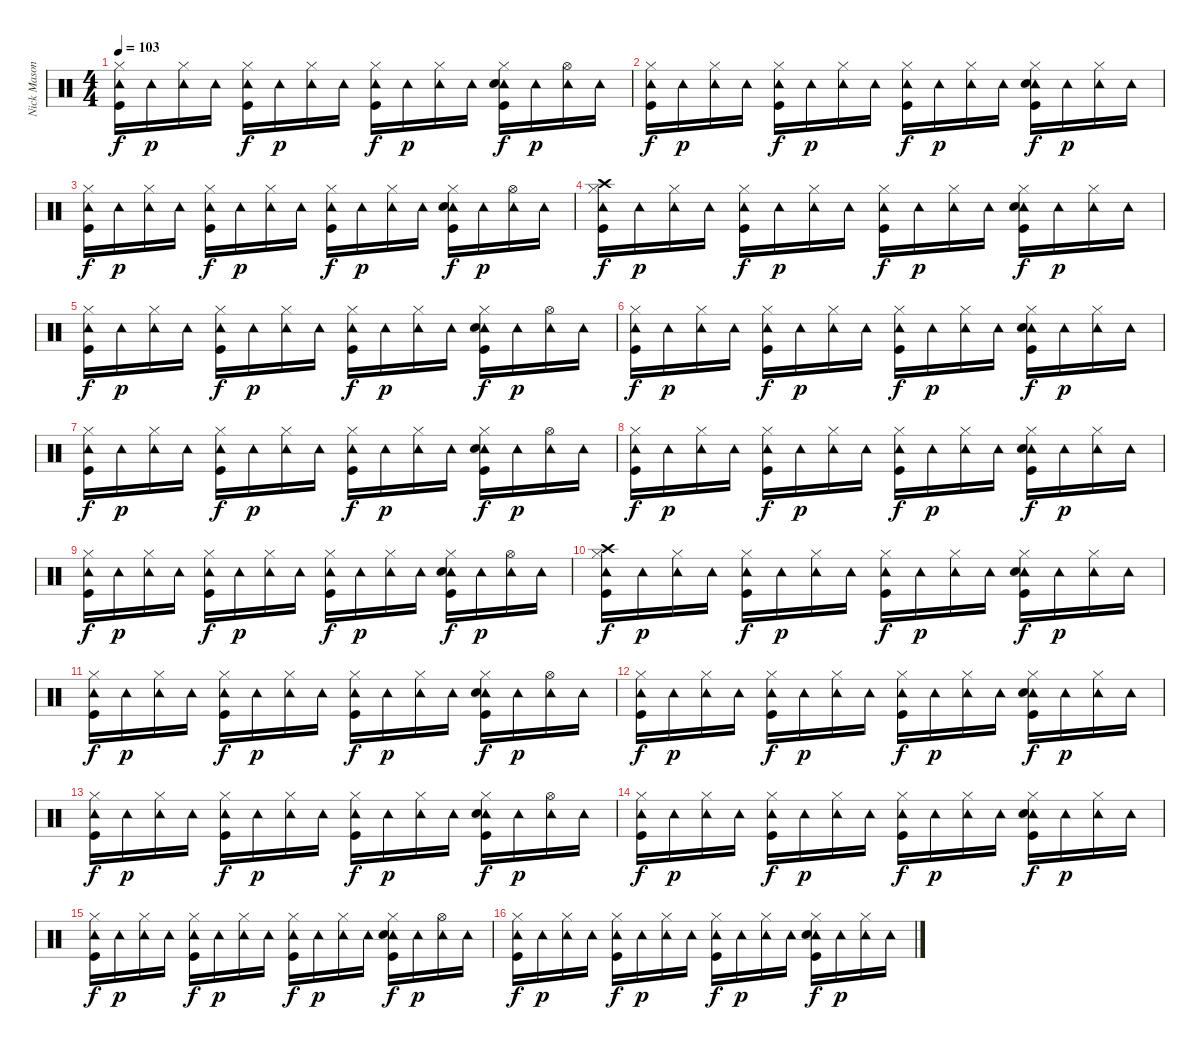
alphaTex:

\track ("Nick Mason" "Nick Mason") {instrument percussion}
\staff {score}
\articulation defaults
\ts (4 4)
\tempo 103
\clef neutral
\ks c
("Tambourine (hit)" "Kick (hit)" "Hi-Hat (closed)").16{dy f} "Tambourine (hit)".16{dy p} ("Tambourine (hit)" "Hi-Hat (closed)").16 "Tambourine (hit)".16 ("Tambourine (hit)" "Kick (hit)" "Hi-Hat (closed)").16{dy f} "Tambourine (hit)".16{dy p} ("Tambourine (hit)" "Hi-Hat (closed)").16 "Tambourine (hit)".16 ("Tambourine (hit)" "Kick (hit)" "Hi-Hat (closed)").16{dy f} "Tambourine (hit)".16{dy p} ("Tambourine (hit)" "Hi-Hat (closed)").16 "Tambourine (hit)".16 ("Tambourine (hit)" "Kick (hit)" "Snare (hit) 2" "Hi-Hat (closed)").16{dy f} "Tambourine (hit)".16{dy p} ("Tambourine (hit)" "Hi-Hat (open)").16 "Tambourine (hit)".16 |
("Tambourine (hit)" "Kick (hit)" "Hi-Hat (closed)").16{dy f} "Tambourine (hit)".16{dy p} ("Tambourine (hit)" "Hi-Hat (closed)").16 "Tambourine (hit)".16 ("Tambourine (hit)" "Kick (hit)" "Hi-Hat (closed)").16{dy f} "Tambourine (hit)".16{dy p} ("Tambourine (hit)" "Hi-Hat (closed)").16 "Tambourine (hit)".16 ("Tambourine (hit)" "Kick (hit)" "Hi-Hat (closed)").16{dy f} "Tambourine (hit)".16{dy p} ("Tambourine (hit)" "Hi-Hat (closed)").16 "Tambourine (hit)".16 ("Tambourine (hit)" "Kick (hit)" "Snare (hit) 2" "Hi-Hat (closed)").16{dy f} "Tambourine (hit)".16{dy p} ("Tambourine (hit)" "Hi-Hat (closed)").16 "Tambourine (hit)".16 |
("Tambourine (hit)" "Kick (hit)" "Hi-Hat (closed)").16{dy f} "Tambourine (hit)".16{dy p} ("Tambourine (hit)" "Hi-Hat (closed)").16 "Tambourine (hit)".16 ("Tambourine (hit)" "Kick (hit)" "Hi-Hat (closed)").16{dy f} "Tambourine (hit)".16{dy p} ("Tambourine (hit)" "Hi-Hat (closed)").16 "Tambourine (hit)".16 ("Tambourine (hit)" "Kick (hit)" "Hi-Hat (closed)").16{dy f} "Tambourine (hit)".16{dy p} ("Tambourine (hit)" "Hi-Hat (closed)").16 "Tambourine (hit)".16 ("Tambourine (hit)" "Kick (hit)" "Snare (hit) 2" "Hi-Hat (closed)").16{dy f} "Tambourine (hit)".16{dy p} ("Tambourine (hit)" "Hi-Hat (open)").16 "Tambourine (hit)".16 |
("Tambourine (hit)" "Kick (hit)" "Hi-Hat (closed)" "Crash high (hit)").16{dy f} "Tambourine (hit)".16{dy p} ("Tambourine (hit)" "Hi-Hat (closed)").16 "Tambourine (hit)".16 ("Tambourine (hit)" "Kick (hit)" "Hi-Hat (closed)").16{dy f} "Tambourine (hit)".16{dy p} ("Tambourine (hit)" "Hi-Hat (closed)").16 "Tambourine (hit)".16 ("Tambourine (hit)" "Kick (hit)" "Hi-Hat (closed)").16{dy f} "Tambourine (hit)".16{dy p} ("Tambourine (hit)" "Hi-Hat (closed)").16 "Tambourine (hit)".16 ("Tambourine (hit)" "Kick (hit)" "Snare (hit) 2" "Hi-Hat (closed)").16{dy f} "Tambourine (hit)".16{dy p} ("Tambourine (hit)" "Hi-Hat (closed)").16 "Tambourine (hit)".16 |
("Tambourine (hit)" "Kick (hit)" "Hi-Hat (closed)").16{dy f} "Tambourine (hit)".16{dy p} ("Tambourine (hit)" "Hi-Hat (closed)").16 "Tambourine (hit)".16 ("Tambourine (hit)" "Kick (hit)" "Hi-Hat (closed)").16{dy f} "Tambourine (hit)".16{dy p} ("Tambourine (hit)" "Hi-Hat (closed)").16 "Tambourine (hit)".16 ("Tambourine (hit)" "Kick (hit)" "Hi-Hat (closed)").16{dy f} "Tambourine (hit)".16{dy p} ("Tambourine (hit)" "Hi-Hat (closed)").16 "Tambourine (hit)".16 ("Tambourine (hit)" "Kick (hit)" "Snare (hit) 2" "Hi-Hat (closed)").16{dy f} "Tambourine (hit)".16{dy p} ("Tambourine (hit)" "Hi-Hat (open)").16 "Tambourine (hit)".16 |
("Tambourine (hit)" "Kick (hit)" "Hi-Hat (closed)").16{dy f} "Tambourine (hit)".16{dy p} ("Tambourine (hit)" "Hi-Hat (closed)").16 "Tambourine (hit)".16 ("Tambourine (hit)" "Kick (hit)" "Hi-Hat (closed)").16{dy f} "Tambourine (hit)".16{dy p} ("Tambourine (hit)" "Hi-Hat (closed)").16 "Tambourine (hit)".16 ("Tambourine (hit)" "Kick (hit)" "Hi-Hat (closed)").16{dy f} "Tambourine (hit)".16{dy p} ("Tambourine (hit)" "Hi-Hat (closed)").16 "Tambourine (hit)".16 ("Tambourine (hit)" "Kick (hit)" "Snare (hit) 2" "Hi-Hat (closed)").16{dy f} "Tambourine (hit)".16{dy p} ("Tambourine (hit)" "Hi-Hat (closed)").16 "Tambourine (hit)".16 |
("Tambourine (hit)" "Kick (hit)" "Hi-Hat (closed)").16{dy f} "Tambourine (hit)".16{dy p} ("Tambourine (hit)" "Hi-Hat (closed)").16 "Tambourine (hit)".16 ("Tambourine (hit)" "Kick (hit)" "Hi-Hat (closed)").16{dy f} "Tambourine (hit)".16{dy p} ("Tambourine (hit)" "Hi-Hat (closed)").16 "Tambourine (hit)".16 ("Tambourine (hit)" "Kick (hit)" "Hi-Hat (closed)").16{dy f} "Tambourine (hit)".16{dy p} ("Tambourine (hit)" "Hi-Hat (closed)").16 "Tambourine (hit)".16 ("Tambourine (hit)" "Kick (hit)" "Snare (hit) 2" "Hi-Hat (closed)").16{dy f} "Tambourine (hit)".16{dy p} ("Tambourine (hit)" "Hi-Hat (open)").16 "Tambourine (hit)".16 |
("Tambourine (hit)" "Kick (hit)" "Hi-Hat (closed)").16{dy f} "Tambourine (hit)".16{dy p} ("Tambourine (hit)" "Hi-Hat (closed)").16 "Tambourine (hit)".16 ("Tambourine (hit)" "Kick (hit)" "Hi-Hat (closed)").16{dy f} "Tambourine (hit)".16{dy p} ("Tambourine (hit)" "Hi-Hat (closed)").16 "Tambourine (hit)".16 ("Tambourine (hit)" "Kick (hit)" "Hi-Hat (closed)").16{dy f} "Tambourine (hit)".16{dy p} ("Tambourine (hit)" "Hi-Hat (closed)").16 "Tambourine (hit)".16 ("Tambourine (hit)" "Kick (hit)" "Snare (hit) 2" "Hi-Hat (closed)").16{dy f} "Tambourine (hit)".16{dy p} ("Tambourine (hit)" "Hi-Hat (closed)").16 "Tambourine (hit)".16 |
("Tambourine (hit)" "Kick (hit)" "Hi-Hat (closed)").16{dy f} "Tambourine (hit)".16{dy p} ("Tambourine (hit)" "Hi-Hat (closed)").16 "Tambourine (hit)".16 ("Tambourine (hit)" "Kick (hit)" "Hi-Hat (closed)").16{dy f} "Tambourine (hit)".16{dy p} ("Tambourine (hit)" "Hi-Hat (closed)").16 "Tambourine (hit)".16 ("Tambourine (hit)" "Kick (hit)" "Hi-Hat (closed)").16{dy f} "Tambourine (hit)".16{dy p} ("Tambourine (hit)" "Hi-Hat (closed)").16 "Tambourine (hit)".16 ("Tambourine (hit)" "Kick (hit)" "Snare (hit) 2" "Hi-Hat (closed)").16{dy f} "Tambourine (hit)".16{dy p} ("Tambourine (hit)" "Hi-Hat (open)").16 "Tambourine (hit)".16 |
("Tambourine (hit)" "Kick (hit)" "Hi-Hat (closed)" "Crash high (hit)").16{dy f} "Tambourine (hit)".16{dy p} ("Tambourine (hit)" "Hi-Hat (closed)").16 "Tambourine (hit)".16 ("Tambourine (hit)" "Kick (hit)" "Hi-Hat (closed)").16{dy f} "Tambourine (hit)".16{dy p} ("Tambourine (hit)" "Hi-Hat (closed)").16 "Tambourine (hit)".16 ("Tambourine (hit)" "Kick (hit)" "Hi-Hat (closed)").16{dy f} "Tambourine (hit)".16{dy p} ("Tambourine (hit)" "Hi-Hat (closed)").16 "Tambourine (hit)".16 ("Tambourine (hit)" "Kick (hit)" "Snare (hit) 2" "Hi-Hat (closed)").16{dy f} "Tambourine (hit)".16{dy p} ("Tambourine (hit)" "Hi-Hat (closed)").16 "Tambourine (hit)".16 |
("Tambourine (hit)" "Kick (hit)" "Hi-Hat (closed)").16{dy f} "Tambourine (hit)".16{dy p} ("Tambourine (hit)" "Hi-Hat (closed)").16 "Tambourine (hit)".16 ("Tambourine (hit)" "Kick (hit)" "Hi-Hat (closed)").16{dy f} "Tambourine (hit)".16{dy p} ("Tambourine (hit)" "Hi-Hat (closed)").16 "Tambourine (hit)".16 ("Tambourine (hit)" "Kick (hit)" "Hi-Hat (closed)").16{dy f} "Tambourine (hit)".16{dy p} ("Tambourine (hit)" "Hi-Hat (closed)").16 "Tambourine (hit)".16 ("Tambourine (hit)" "Kick (hit)" "Snare (hit) 2" "Hi-Hat (closed)").16{dy f} "Tambourine (hit)".16{dy p} ("Tambourine (hit)" "Hi-Hat (open)").16 "Tambourine (hit)".16 |
("Tambourine (hit)" "Kick (hit)" "Hi-Hat (closed)").16{dy f} "Tambourine (hit)".16{dy p} ("Tambourine (hit)" "Hi-Hat (closed)").16 "Tambourine (hit)".16 ("Tambourine (hit)" "Kick (hit)" "Hi-Hat (closed)").16{dy f} "Tambourine (hit)".16{dy p} ("Tambourine (hit)" "Hi-Hat (closed)").16 "Tambourine (hit)".16 ("Tambourine (hit)" "Kick (hit)" "Hi-Hat (closed)").16{dy f} "Tambourine (hit)".16{dy p} ("Tambourine (hit)" "Hi-Hat (closed)").16 "Tambourine (hit)".16 ("Tambourine (hit)" "Kick (hit)" "Snare (hit) 2" "Hi-Hat (closed)").16{dy f} "Tambourine (hit)".16{dy p} ("Tambourine (hit)" "Hi-Hat (closed)").16 "Tambourine (hit)".16 |
("Tambourine (hit)" "Kick (hit)" "Hi-Hat (closed)").16{dy f} "Tambourine (hit)".16{dy p} ("Tambourine (hit)" "Hi-Hat (closed)").16 "Tambourine (hit)".16 ("Tambourine (hit)" "Kick (hit)" "Hi-Hat (closed)").16{dy f} "Tambourine (hit)".16{dy p} ("Tambourine (hit)" "Hi-Hat (closed)").16 "Tambourine (hit)".16 ("Tambourine (hit)" "Kick (hit)" "Hi-Hat (closed)").16{dy f} "Tambourine (hit)".16{dy p} ("Tambourine (hit)" "Hi-Hat (closed)").16 "Tambourine (hit)".16 ("Tambourine (hit)" "Kick (hit)" "Snare (hit) 2" "Hi-Hat (closed)").16{dy f} "Tambourine (hit)".16{dy p} ("Tambourine (hit)" "Hi-Hat (open)").16 "Tambourine (hit)".16 |
("Tambourine (hit)" "Kick (hit)" "Hi-Hat (closed)").16{dy f} "Tambourine (hit)".16{dy p} ("Tambourine (hit)" "Hi-Hat (closed)").16 "Tambourine (hit)".16 ("Tambourine (hit)" "Kick (hit)" "Hi-Hat (closed)").16{dy f} "Tambourine (hit)".16{dy p} ("Tambourine (hit)" "Hi-Hat (closed)").16 "Tambourine (hit)".16 ("Tambourine (hit)" "Kick (hit)" "Hi-Hat (closed)").16{dy f} "Tambourine (hit)".16{dy p} ("Tambourine (hit)" "Hi-Hat (closed)").16 "Tambourine (hit)".16 ("Tambourine (hit)" "Kick (hit)" "Snare (hit) 2" "Hi-Hat (closed)").16{dy f} "Tambourine (hit)".16{dy p} ("Tambourine (hit)" "Hi-Hat (closed)").16 "Tambourine (hit)".16 |
("Tambourine (hit)" "Kick (hit)" "Hi-Hat (closed)").16{dy f} "Tambourine (hit)".16{dy p} ("Tambourine (hit)" "Hi-Hat (closed)").16 "Tambourine (hit)".16 ("Tambourine (hit)" "Kick (hit)" "Hi-Hat (closed)").16{dy f} "Tambourine (hit)".16{dy p} ("Tambourine (hit)" "Hi-Hat (closed)").16 "Tambourine (hit)".16 ("Tambourine (hit)" "Kick (hit)" "Hi-Hat (closed)").16{dy f} "Tambourine (hit)".16{dy p} ("Tambourine (hit)" "Hi-Hat (closed)").16 "Tambourine (hit)".16 ("Tambourine (hit)" "Kick (hit)" "Snare (hit) 2" "Hi-Hat (closed)").16{dy f} "Tambourine (hit)".16{dy p} ("Tambourine (hit)" "Hi-Hat (open)").16 "Tambourine (hit)".16 |
("Tambourine (hit)" "Kick (hit)" "Hi-Hat (closed)").16{dy f} "Tambourine (hit)".16{dy p} ("Tambourine (hit)" "Hi-Hat (closed)").16 "Tambourine (hit)".16 ("Tambourine (hit)" "Kick (hit)" "Hi-Hat (closed)").16{dy f} "Tambourine (hit)".16{dy p} ("Tambourine (hit)" "Hi-Hat (closed)").16 "Tambourine (hit)".16 ("Tambourine (hit)" "Kick (hit)" "Hi-Hat (closed)").16{dy f} "Tambourine (hit)".16{dy p} ("Tambourine (hit)" "Hi-Hat (closed)").16 "Tambourine (hit)".16 ("Tambourine (hit)" "Kick (hit)" "Snare (hit) 2" "Hi-Hat (closed)").16{dy f} "Tambourine (hit)".16{dy p} ("Tambourine (hit)" "Hi-Hat (closed)").16 "Tambourine (hit)".16
